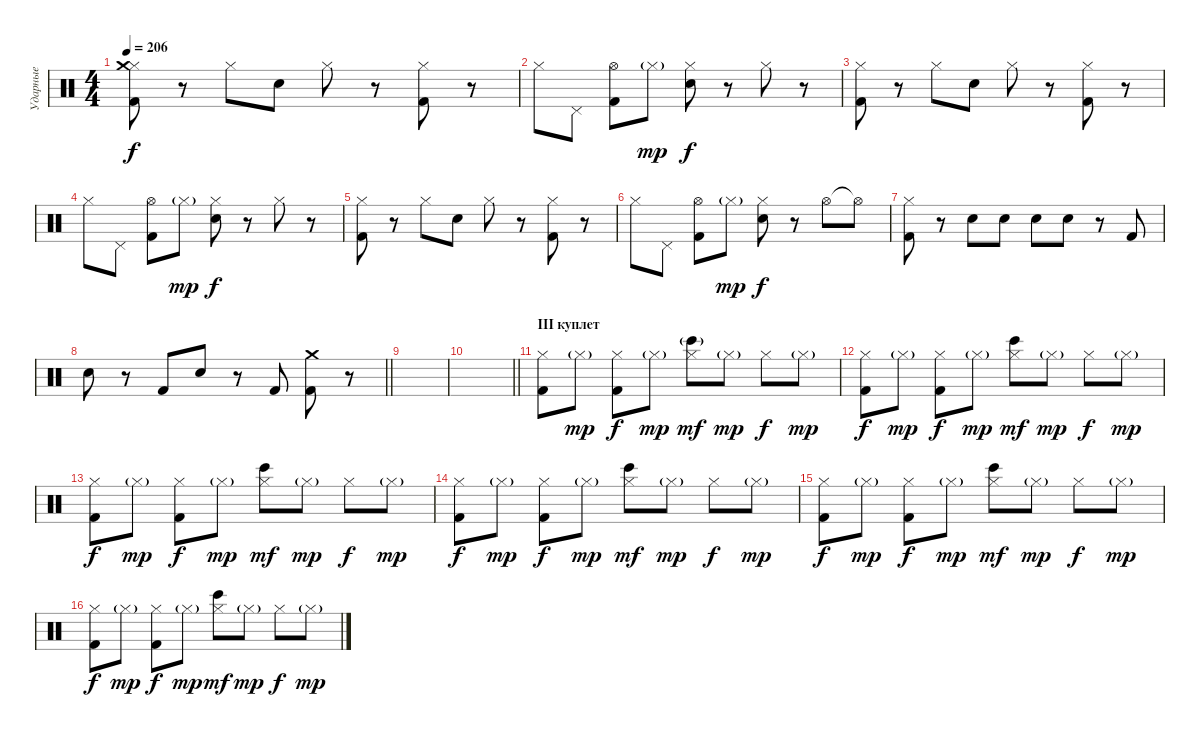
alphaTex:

\track ("Ударные" "Ударные") {instrument percussion}
\staff {score}
\articulation defaults
\ts (4 4)
\tempo 206
\clef neutral
\ks c
("Hi-Hat (closed)" "Kick (hit) 2" "Crash medium (hit)").8{dy f} r.8 "Hi-Hat (closed)".8 "Electric Snare (hit)".8 "Hi-Hat (closed)".8 r.8 ("Hi-Hat (closed)" "Kick (hit) 2").8 r.8 |
"Hi-Hat (closed)".8 "Pedal Hi-Hat (hit)".8 ("Hi-Hat (open)" "Kick (hit) 2").8 "Hi-Hat (closed)"{g}.8{dy mp} ("Hi-Hat (closed)" "Electric Snare (hit)").8{dy f} r.8 "Hi-Hat (closed)".8 r.8 |
("Hi-Hat (closed)" "Kick (hit) 2").8 r.8 "Hi-Hat (closed)".8 "Electric Snare (hit)".8 "Hi-Hat (closed)".8 r.8 ("Hi-Hat (closed)" "Kick (hit) 2").8 r.8 |
"Hi-Hat (closed)".8 "Pedal Hi-Hat (hit)".8 ("Hi-Hat (open)" "Kick (hit) 2").8 "Hi-Hat (closed)"{g}.8{dy mp} ("Hi-Hat (closed)" "Electric Snare (hit)").8{dy f} r.8 "Hi-Hat (closed)".8 r.8 |
("Hi-Hat (closed)" "Kick (hit) 2").8 r.8 "Hi-Hat (closed)".8 "Electric Snare (hit)".8 "Hi-Hat (closed)".8 r.8 ("Hi-Hat (closed)" "Kick (hit) 2").8 r.8 |
"Hi-Hat (closed)".8 "Pedal Hi-Hat (hit)".8 ("Hi-Hat (open)" "Kick (hit) 2").8 "Hi-Hat (closed)"{g}.8{dy mp} ("Hi-Hat (closed)" "Electric Snare (hit)").8{dy f} r.8 "Hi-Hat (open)".8 "Hi-Hat (open)"{t}.8 |
("Hi-Hat (closed)" "Kick (hit) 2").8 r.8 "Electric Snare (hit)".8 "Electric Snare (hit)".8 "Electric Snare (hit)".8 "Electric Snare (hit)".8 r.8 "Kick (hit) 2".8 |
\barLineRight lightlight "Electric Snare (hit)".8
r.8 "Kick (hit) 2".8 "Electric Snare (hit)".8 r.8 "Kick (hit) 2".8 ("Kick (hit) 2" "Crash medium (hit)").8 r.8 |
|
\barLineRight lightlight
|
\section ("" "III куплет")
("Hi-Hat (closed)" "Kick (hit) 2").8 "Hi-Hat (closed)"{g}.8{dy mp} ("Hi-Hat (closed)" "Kick (hit) 2").8{dy f} "Hi-Hat (closed)"{g}.8{dy mp} ("Hi-Hat (closed)" "Bongo High (hit)"{g}).8{dy mf} "Hi-Hat (closed)"{g}.8{dy mp} "Hi-Hat (closed)".8{dy f} "Hi-Hat (closed)"{g}.8{dy mp} |
("Hi-Hat (closed)" "Kick (hit) 2").8{dy f} "Hi-Hat (closed)"{g}.8{dy mp} ("Hi-Hat (closed)" "Kick (hit) 2").8{dy f} "Hi-Hat (closed)"{g}.8{dy mp} ("Hi-Hat (closed)" "Bongo High (hit)").8{dy mf} "Hi-Hat (closed)"{g}.8{dy mp} "Hi-Hat (closed)".8{dy f} "Hi-Hat (closed)"{g}.8{dy mp} |
("Hi-Hat (closed)" "Kick (hit) 2").8{dy f} "Hi-Hat (closed)"{g}.8{dy mp} ("Hi-Hat (closed)" "Kick (hit) 2").8{dy f} "Hi-Hat (closed)"{g}.8{dy mp} ("Hi-Hat (closed)" "Bongo High (hit)").8{dy mf} "Hi-Hat (closed)"{g}.8{dy mp} "Hi-Hat (closed)".8{dy f} "Hi-Hat (closed)"{g}.8{dy mp} |
("Hi-Hat (closed)" "Kick (hit) 2").8{dy f} "Hi-Hat (closed)"{g}.8{dy mp} ("Hi-Hat (closed)" "Kick (hit) 2").8{dy f} "Hi-Hat (closed)"{g}.8{dy mp} ("Hi-Hat (closed)" "Bongo High (hit)").8{dy mf} "Hi-Hat (closed)"{g}.8{dy mp} "Hi-Hat (closed)".8{dy f} "Hi-Hat (closed)"{g}.8{dy mp} |
("Hi-Hat (closed)" "Kick (hit) 2").8{dy f} "Hi-Hat (closed)"{g}.8{dy mp} ("Hi-Hat (closed)" "Kick (hit) 2").8{dy f} "Hi-Hat (closed)"{g}.8{dy mp} ("Hi-Hat (closed)" "Bongo High (hit)").8{dy mf} "Hi-Hat (closed)"{g}.8{dy mp} "Hi-Hat (closed)".8{dy f} "Hi-Hat (closed)"{g}.8{dy mp} |
("Hi-Hat (closed)" "Kick (hit) 2").8{dy f} "Hi-Hat (closed)"{g}.8{dy mp} ("Hi-Hat (closed)" "Kick (hit) 2").8{dy f} "Hi-Hat (closed)"{g}.8{dy mp} ("Hi-Hat (closed)" "Bongo High (hit)").8{dy mf} "Hi-Hat (closed)"{g}.8{dy mp} "Hi-Hat (closed)".8{dy f} "Hi-Hat (closed)"{g}.8{dy mp}
